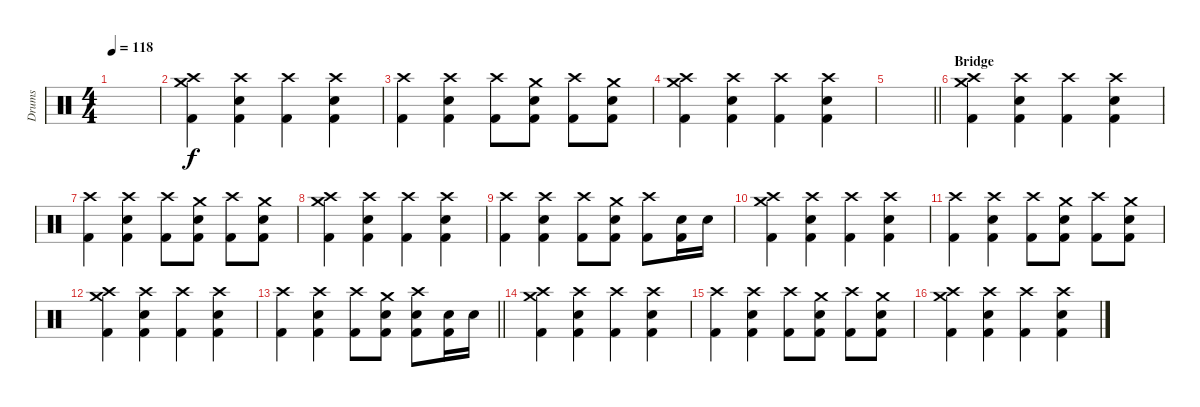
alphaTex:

\track ("Drums" "Drums") {instrument percussion}
\staff {score}
\articulation defaults
\ts (4 4)
\tempo 118
\clef neutral
\ks c
|
("Crash medium (hit)" "Crash high (hit)" "Kick (hit) 2").4 ("Crash high (hit)" "Snare (hit) 2" "Kick (hit) 2").4 ("Crash high (hit)" "Kick (hit) 2").4 ("Crash high (hit)" "Snare (hit) 2" "Kick (hit) 2").4 |
("Crash high (hit)" "Kick (hit) 2").4 ("Crash high (hit)" "Snare (hit) 2" "Kick (hit) 2").4 ("Crash high (hit)" "Kick (hit) 2").8 ("Crash medium (hit)" "Snare (hit) 2" "Kick (hit) 2").8 ("Crash high (hit)" "Kick (hit) 2").8 ("Crash medium (hit)" "Snare (hit) 2" "Kick (hit) 2").8 |
("Crash medium (hit)" "Crash high (hit)" "Kick (hit) 2").4 ("Crash high (hit)" "Snare (hit) 2" "Kick (hit) 2").4 ("Crash high (hit)" "Kick (hit) 2").4 ("Crash high (hit)" "Snare (hit) 2" "Kick (hit) 2").4 |
\barLineRight lightlight
|
\section ("" "Bridge")
("Crash medium (hit)" "Crash high (hit)" "Kick (hit) 2").4 ("Crash high (hit)" "Snare (hit) 2" "Kick (hit) 2").4 ("Crash high (hit)" "Kick (hit) 2").4 ("Crash high (hit)" "Snare (hit) 2" "Kick (hit) 2").4 |
("Crash high (hit)" "Kick (hit) 2").4 ("Crash high (hit)" "Snare (hit) 2" "Kick (hit) 2").4 ("Crash high (hit)" "Kick (hit) 2").8 ("Crash medium (hit)" "Snare (hit) 2" "Kick (hit) 2").8 ("Crash high (hit)" "Kick (hit) 2").8 ("Crash medium (hit)" "Snare (hit) 2" "Kick (hit) 2").8 |
("Crash medium (hit)" "Crash high (hit)" "Kick (hit) 2").4 ("Crash high (hit)" "Snare (hit) 2" "Kick (hit) 2").4 ("Crash high (hit)" "Kick (hit) 2").4 ("Crash high (hit)" "Snare (hit) 2" "Kick (hit) 2").4 |
("Crash high (hit)" "Kick (hit) 2").4 ("Crash high (hit)" "Snare (hit) 2" "Kick (hit) 2").4 ("Crash high (hit)" "Kick (hit) 2").8 ("Crash medium (hit)" "Snare (hit) 2" "Kick (hit) 2").8 ("Crash high (hit)" "Kick (hit) 2").8 ("Snare (hit) 2" "Kick (hit) 2").16 "Snare (hit) 2".16 |
("Crash medium (hit)" "Crash high (hit)" "Kick (hit) 2").4 ("Crash high (hit)" "Snare (hit) 2" "Kick (hit) 2").4 ("Crash high (hit)" "Kick (hit) 2").4 ("Crash high (hit)" "Snare (hit) 2" "Kick (hit) 2").4 |
("Crash high (hit)" "Kick (hit) 2").4 ("Crash high (hit)" "Snare (hit) 2" "Kick (hit) 2").4 ("Crash high (hit)" "Kick (hit) 2").8 ("Crash medium (hit)" "Snare (hit) 2" "Kick (hit) 2").8 ("Crash high (hit)" "Kick (hit) 2").8 ("Crash medium (hit)" "Snare (hit) 2" "Kick (hit) 2").8 |
("Crash medium (hit)" "Crash high (hit)" "Kick (hit) 2").4 ("Crash high (hit)" "Snare (hit) 2" "Kick (hit) 2").4 ("Crash high (hit)" "Kick (hit) 2").4 ("Crash high (hit)" "Snare (hit) 2" "Kick (hit) 2").4 |
\barLineRight lightlight
("Crash high (hit)" "Kick (hit) 2").4 ("Crash high (hit)" "Snare (hit) 2" "Kick (hit) 2").4 ("Crash high (hit)" "Kick (hit) 2").8 ("Crash medium (hit)" "Snare (hit) 2" "Kick (hit) 2").8 ("Crash high (hit)" "Snare (hit) 2" "Kick (hit) 2").8 ("Snare (hit) 2" "Kick (hit) 2").16 "Snare (hit) 2".16 |
("Crash medium (hit)" "Crash high (hit)" "Kick (hit) 2").4 ("Crash high (hit)" "Snare (hit) 2" "Kick (hit) 2").4 ("Crash high (hit)" "Kick (hit) 2").4 ("Crash high (hit)" "Snare (hit) 2" "Kick (hit) 2").4 |
("Crash high (hit)" "Kick (hit) 2").4 ("Crash high (hit)" "Snare (hit) 2" "Kick (hit) 2").4 ("Crash high (hit)" "Kick (hit) 2").8 ("Crash medium (hit)" "Snare (hit) 2" "Kick (hit) 2").8 ("Crash high (hit)" "Kick (hit) 2").8 ("Crash medium (hit)" "Snare (hit) 2" "Kick (hit) 2").8 |
("Crash medium (hit)" "Crash high (hit)" "Kick (hit) 2").4 ("Crash high (hit)" "Snare (hit) 2" "Kick (hit) 2").4 ("Crash high (hit)" "Kick (hit) 2").4 ("Crash high (hit)" "Snare (hit) 2" "Kick (hit) 2").4
